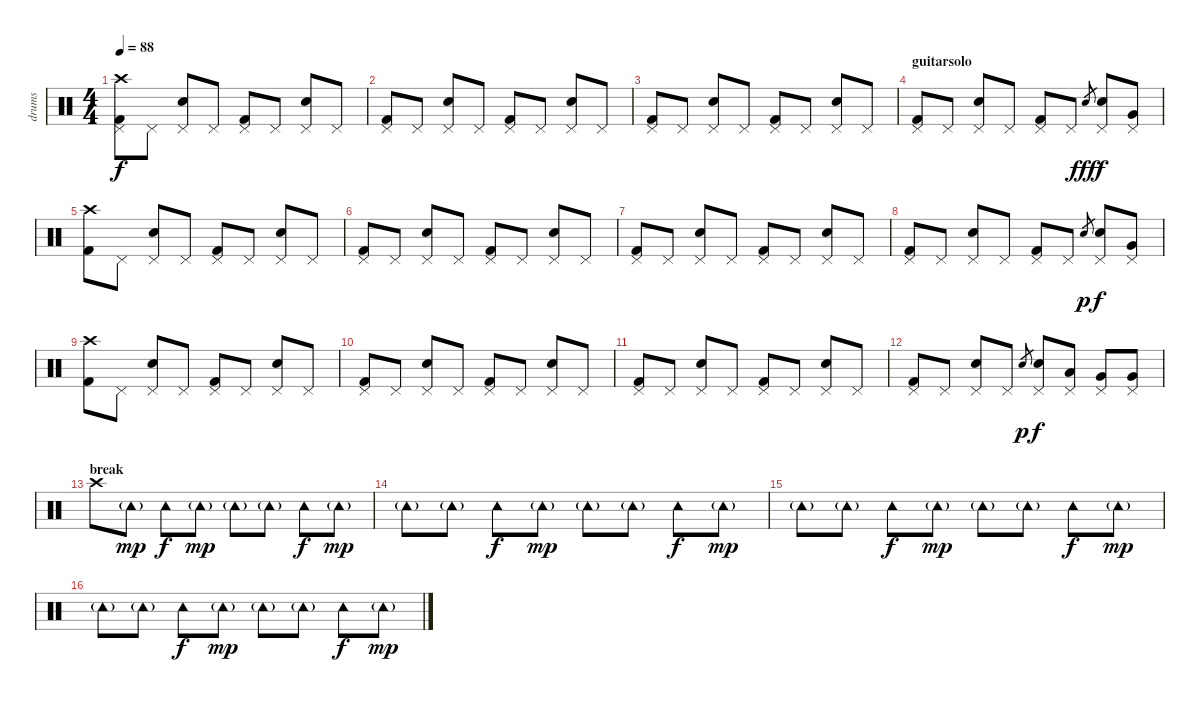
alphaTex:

\track ("drums" "drums") {instrument percussion}
\staff {score}
\articulation defaults
\ts (4 4)
\tempo 88
\clef neutral
\ks c
("Kick (hit) 2" "Pedal Hi-Hat (hit)" "Crash high (hit)").8{dy f} "Pedal Hi-Hat (hit)".8 ("Electric Snare (hit)" "Pedal Hi-Hat (hit)").8 "Pedal Hi-Hat (hit)".8 ("Kick (hit) 2" "Pedal Hi-Hat (hit)").8 "Pedal Hi-Hat (hit)".8 ("Electric Snare (hit)" "Pedal Hi-Hat (hit)").8 "Pedal Hi-Hat (hit)".8 |
("Kick (hit) 2" "Pedal Hi-Hat (hit)").8 "Pedal Hi-Hat (hit)".8 ("Electric Snare (hit)" "Pedal Hi-Hat (hit)").8 "Pedal Hi-Hat (hit)".8 ("Kick (hit) 2" "Pedal Hi-Hat (hit)").8 "Pedal Hi-Hat (hit)".8 ("Electric Snare (hit)" "Pedal Hi-Hat (hit)").8 "Pedal Hi-Hat (hit)".8 |
("Kick (hit) 2" "Pedal Hi-Hat (hit)").8 "Pedal Hi-Hat (hit)".8 ("Electric Snare (hit)" "Pedal Hi-Hat (hit)").8 "Pedal Hi-Hat (hit)".8 ("Kick (hit) 2" "Pedal Hi-Hat (hit)").8 "Pedal Hi-Hat (hit)".8 ("Electric Snare (hit)" "Pedal Hi-Hat (hit)").8 "Pedal Hi-Hat (hit)".8 |
\section ("" "guitarsolo")
("Kick (hit) 2" "Pedal Hi-Hat (hit)").8 "Pedal Hi-Hat (hit)".8 ("Electric Snare (hit)" "Pedal Hi-Hat (hit)").8 "Pedal Hi-Hat (hit)".8 ("Kick (hit) 2" "Pedal Hi-Hat (hit)").8 "Pedal Hi-Hat (hit)".8 "Electric Snare (hit)".8{gr dy fff} ("Electric Snare (hit)" "Pedal Hi-Hat (hit)").8{dy f} ("Very Low Tom (hit)" "Pedal Hi-Hat (hit)").8 |
("Kick (hit) 2" "Crash high (hit)").8 "Pedal Hi-Hat (hit)".8 ("Electric Snare (hit)" "Pedal Hi-Hat (hit)").8 "Pedal Hi-Hat (hit)".8 ("Kick (hit) 2" "Pedal Hi-Hat (hit)").8 "Pedal Hi-Hat (hit)".8 ("Electric Snare (hit)" "Pedal Hi-Hat (hit)").8 "Pedal Hi-Hat (hit)".8 |
("Kick (hit) 2" "Pedal Hi-Hat (hit)").8 "Pedal Hi-Hat (hit)".8 ("Electric Snare (hit)" "Pedal Hi-Hat (hit)").8 "Pedal Hi-Hat (hit)".8 ("Kick (hit) 2" "Pedal Hi-Hat (hit)").8 "Pedal Hi-Hat (hit)".8 ("Electric Snare (hit)" "Pedal Hi-Hat (hit)").8 "Pedal Hi-Hat (hit)".8 |
("Kick (hit) 2" "Pedal Hi-Hat (hit)").8 "Pedal Hi-Hat (hit)".8 ("Electric Snare (hit)" "Pedal Hi-Hat (hit)").8 "Pedal Hi-Hat (hit)".8 ("Kick (hit) 2" "Pedal Hi-Hat (hit)").8 "Pedal Hi-Hat (hit)".8 ("Electric Snare (hit)" "Pedal Hi-Hat (hit)").8 "Pedal Hi-Hat (hit)".8 |
("Kick (hit) 2" "Pedal Hi-Hat (hit)").8 "Pedal Hi-Hat (hit)".8 ("Electric Snare (hit)" "Pedal Hi-Hat (hit)").8 "Pedal Hi-Hat (hit)".8 ("Kick (hit) 2" "Pedal Hi-Hat (hit)").8 "Pedal Hi-Hat (hit)".8 "Electric Snare (hit)".8{gr dy p} ("Electric Snare (hit)" "Pedal Hi-Hat (hit)").8{dy f} ("Very Low Tom (hit)" "Pedal Hi-Hat (hit)").8 |
("Kick (hit) 2" "Crash high (hit)").8 "Pedal Hi-Hat (hit)".8 ("Electric Snare (hit)" "Pedal Hi-Hat (hit)").8 "Pedal Hi-Hat (hit)".8 ("Kick (hit) 2" "Pedal Hi-Hat (hit)").8 "Pedal Hi-Hat (hit)".8 ("Electric Snare (hit)" "Pedal Hi-Hat (hit)").8 "Pedal Hi-Hat (hit)".8 |
("Kick (hit) 2" "Pedal Hi-Hat (hit)").8 "Pedal Hi-Hat (hit)".8 ("Electric Snare (hit)" "Pedal Hi-Hat (hit)").8 "Pedal Hi-Hat (hit)".8 ("Kick (hit) 2" "Pedal Hi-Hat (hit)").8 "Pedal Hi-Hat (hit)".8 ("Electric Snare (hit)" "Pedal Hi-Hat (hit)").8 "Pedal Hi-Hat (hit)".8 |
("Kick (hit) 2" "Pedal Hi-Hat (hit)").8 "Pedal Hi-Hat (hit)".8 ("Electric Snare (hit)" "Pedal Hi-Hat (hit)").8 "Pedal Hi-Hat (hit)".8 ("Kick (hit) 2" "Pedal Hi-Hat (hit)").8 "Pedal Hi-Hat (hit)".8 ("Electric Snare (hit)" "Pedal Hi-Hat (hit)").8 "Pedal Hi-Hat (hit)".8 |
("Kick (hit) 2" "Pedal Hi-Hat (hit)").8 "Pedal Hi-Hat (hit)".8 ("Electric Snare (hit)" "Pedal Hi-Hat (hit)").8 "Pedal Hi-Hat (hit)".8 "Electric Snare (hit)".8{gr dy p} ("Electric Snare (hit)" "Pedal Hi-Hat (hit)").8{dy f} ("Low Tom (hit)" "Pedal Hi-Hat (hit)").8 ("Very Low Tom (hit)" "Pedal Hi-Hat (hit)").8 ("Very Low Tom (hit)" "Pedal Hi-Hat (hit)").8 |
\section ("" "break")
"Crash high (hit)".8 "Tambourine (hit)"{g}.8{dy mp volume 12} "Tambourine (hit)".8{dy f} "Tambourine (hit)"{g}.8{dy mp} "Tambourine (hit)"{g}.8 "Tambourine (hit)"{g}.8 "Tambourine (hit)".8{dy f} "Tambourine (hit)"{g}.8{dy mp} |
"Tambourine (hit)"{g}.8 "Tambourine (hit)"{g}.8 "Tambourine (hit)".8{dy f} "Tambourine (hit)"{g}.8{dy mp} "Tambourine (hit)"{g}.8 "Tambourine (hit)"{g}.8 "Tambourine (hit)".8{dy f} "Tambourine (hit)"{g}.8{dy mp} |
"Tambourine (hit)"{g}.8 "Tambourine (hit)"{g}.8 "Tambourine (hit)".8{dy f} "Tambourine (hit)"{g}.8{dy mp} "Tambourine (hit)"{g}.8 "Tambourine (hit)"{g}.8 "Tambourine (hit)".8{dy f} "Tambourine (hit)"{g}.8{dy mp} |
"Tambourine (hit)"{g}.8 "Tambourine (hit)"{g}.8 "Tambourine (hit)".8{dy f} "Tambourine (hit)"{g}.8{dy mp} "Tambourine (hit)"{g}.8 "Tambourine (hit)"{g}.8 "Tambourine (hit)".8{dy f} "Tambourine (hit)"{g}.8{dy mp}
